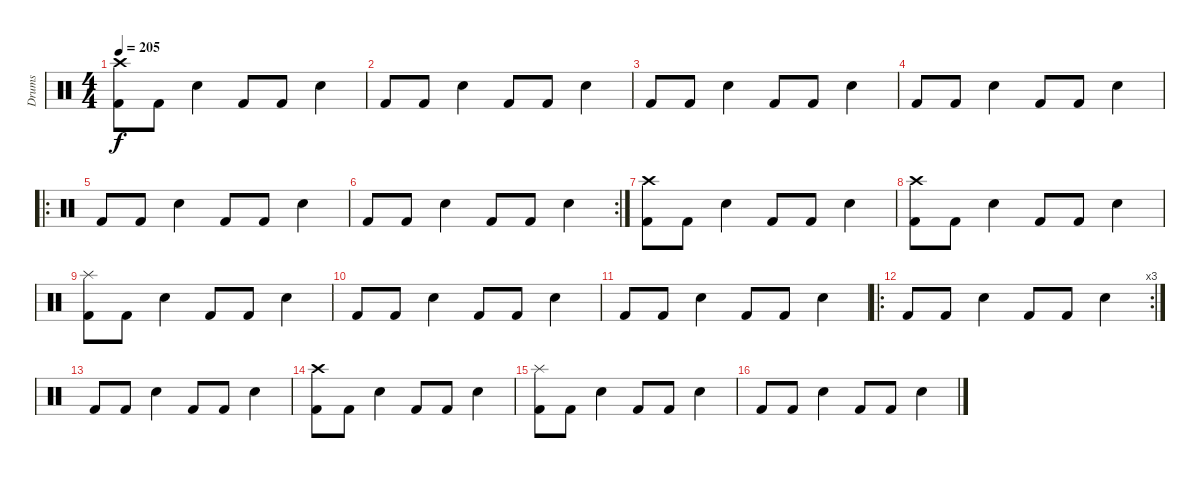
\track ("Drums " "Drums ") {instrument percussion}
\staff {score}
\articulation defaults
\ts (4 4)
\tempo 205
\clef neutral
\ks c
("Crash high (hit)" "Kick (hit) 2").8{dy f} "Kick (hit) 2".8 "Electric Snare (hit)".4 "Kick (hit) 2".8 "Kick (hit) 2".8 "Electric Snare (hit)".4 |
"Kick (hit) 2".8 "Kick (hit) 2".8 "Electric Snare (hit)".4 "Kick (hit) 2".8 "Kick (hit) 2".8 "Electric Snare (hit)".4 |
"Kick (hit) 2".8 "Kick (hit) 2".8 "Electric Snare (hit)".4 "Kick (hit) 2".8 "Kick (hit) 2".8 "Electric Snare (hit)".4 |
"Kick (hit) 2".8 "Kick (hit) 2".8 "Electric Snare (hit)".4 "Kick (hit) 2".8 "Kick (hit) 2".8 "Electric Snare (hit)".4 |
\ro "Kick (hit) 2".8 "Kick (hit) 2".8 "Electric Snare (hit)".4 "Kick (hit) 2".8 "Kick (hit) 2".8 "Electric Snare (hit)".4
|
\rc 2 "Kick (hit) 2".8 "Kick (hit) 2".8 "Electric Snare (hit)".4 "Kick (hit) 2".8 "Kick (hit) 2".8 "Electric Snare (hit)".4
|
("Crash high (hit)" "Kick (hit) 2").8 "Kick (hit) 2".8 "Electric Snare (hit)".4 "Kick (hit) 2".8 "Kick (hit) 2".8 "Electric Snare (hit)".4 |
("Crash high (hit)" "Kick (hit) 2").8 "Kick (hit) 2".8 "Electric Snare (hit)".4 "Kick (hit) 2".8 "Kick (hit) 2".8 "Electric Snare (hit)".4 |
("Splash (hit)" "Kick (hit) 2").8 "Kick (hit) 2".8 "Electric Snare (hit)".4 "Kick (hit) 2".8 "Kick (hit) 2".8 "Electric Snare (hit)".4 |
"Kick (hit) 2".8 "Kick (hit) 2".8 "Electric Snare (hit)".4 "Kick (hit) 2".8 "Kick (hit) 2".8 "Electric Snare (hit)".4 |
"Kick (hit) 2".8 "Kick (hit) 2".8 "Electric Snare (hit)".4 "Kick (hit) 2".8 "Kick (hit) 2".8 "Electric Snare (hit)".4 |
\ro
\rc 3 "Kick (hit) 2".8 "Kick (hit) 2".8 "Electric Snare (hit)".4 "Kick (hit) 2".8 "Kick (hit) 2".8 "Electric Snare (hit)".4
|
"Kick (hit) 2".8 "Kick (hit) 2".8 "Electric Snare (hit)".4 "Kick (hit) 2".8 "Kick (hit) 2".8 "Electric Snare (hit)".4 |
("Crash high (hit)" "Kick (hit) 2").8 "Kick (hit) 2".8 "Electric Snare (hit)".4 "Kick (hit) 2".8 "Kick (hit) 2".8 "Electric Snare (hit)".4 |
("Splash (hit)" "Kick (hit) 2").8 "Kick (hit) 2".8 "Electric Snare (hit)".4 "Kick (hit) 2".8 "Kick (hit) 2".8 "Electric Snare (hit)".4 |
"Kick (hit) 2".8 "Kick (hit) 2".8 "Electric Snare (hit)".4 "Kick (hit) 2".8 "Kick (hit) 2".8 "Electric Snare (hit)".4
